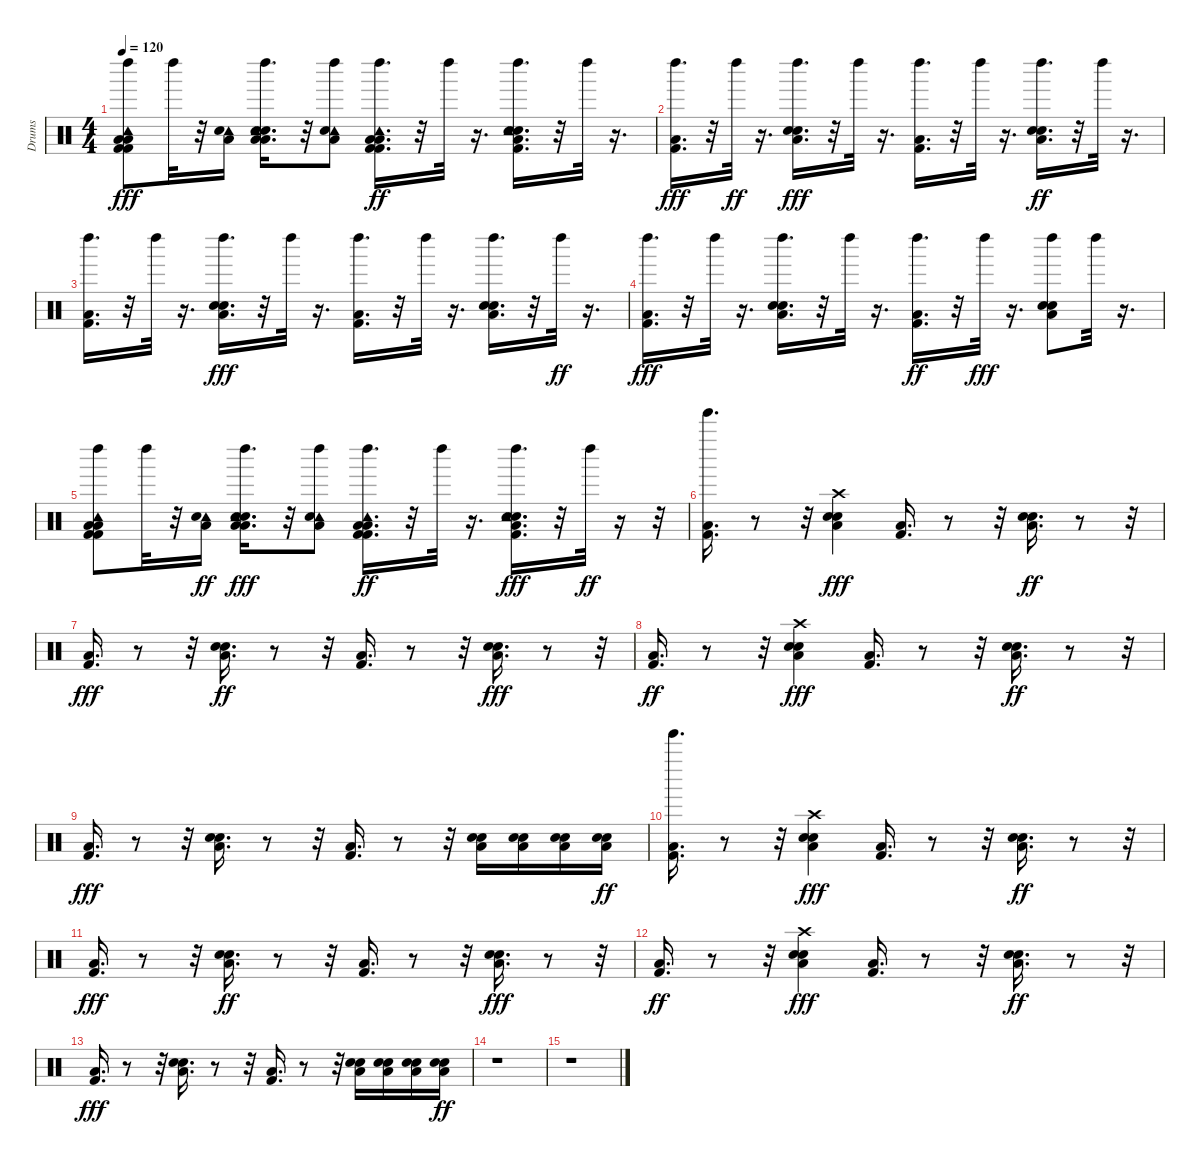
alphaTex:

\track ("Drums" "Drums") {instrument percussion}
\staff {score}
\articulation defaults
\ts (4 4)
\tempo 120
\clef neutral
\ks c
("Left Maraca (hit)" "Low Floor Tom (hit)" "Kick (hit) 2" "Tambourine (hit)" "Low Floor Tom (hit)" "Kick (hit) 2").8{dy fff} "Left Maraca (hit)".32 r.32 ("Tambourine (hit)" "Low Floor Tom (hit)" "Snare (hit) 2").16 ("Left Maraca (hit)" "Electric Snare (hit)" "Low Floor Tom (hit)" "Snare (hit) 2" "Tambourine (hit)" "Low Floor Tom (hit)").16{d} r.32 ("Left Maraca (hit)" "Tambourine (hit)" "Low Floor Tom (hit)" "Snare (hit) 2").8 ("Left Maraca (hit)" "Low Floor Tom (hit)" "Kick (hit) 2" "Tambourine (hit)" "Low Floor Tom (hit)" "Kick (hit) 2").16{d dy ff} r.32 "Left Maraca (hit)".32 r.16{d} ("Left Maraca (hit)" "Electric Snare (hit)" "Low Floor Tom (hit)" "Snare (hit) 2" "Tambourine (hit)" "Kick (hit) 2").16{d} r.32 "Left Maraca (hit)".32 r.16{d} |
("Left Maraca (hit)" "Low Floor Tom (hit)" "Kick (hit) 2").16{d dy fff} r.32 "Left Maraca (hit)".32{dy ff} r.16{d} ("Left Maraca (hit)" "Electric Snare (hit)" "Low Floor Tom (hit)" "Snare (hit) 2").16{d dy fff} r.32 "Left Maraca (hit)".32 r.16{d} ("Left Maraca (hit)" "Low Floor Tom (hit)" "Kick (hit) 2").16{d} r.32 "Left Maraca (hit)".32 r.16{d} ("Left Maraca (hit)" "Electric Snare (hit)" "Low Floor Tom (hit)" "Snare (hit) 2").16{d dy ff} r.32 "Left Maraca (hit)".32 r.16{d} |
("Left Maraca (hit)" "Low Floor Tom (hit)" "Kick (hit) 2").16{d} r.32 "Left Maraca (hit)".32 r.16{d} ("Left Maraca (hit)" "Electric Snare (hit)" "Low Floor Tom (hit)" "Snare (hit) 2").16{d dy fff} r.32 "Left Maraca (hit)".32 r.16{d} ("Left Maraca (hit)" "Low Floor Tom (hit)" "Kick (hit) 2").16{d} r.32 "Left Maraca (hit)".32 r.16{d} ("Left Maraca (hit)" "Electric Snare (hit)" "Low Floor Tom (hit)" "Snare (hit) 2").16{d} r.32 "Left Maraca (hit)".32{dy ff} r.16{d} |
("Left Maraca (hit)" "Low Floor Tom (hit)" "Kick (hit) 2").16{d dy fff} r.32 "Left Maraca (hit)".32 r.16{d} ("Left Maraca (hit)" "Electric Snare (hit)" "Low Floor Tom (hit)" "Snare (hit) 2").16{d} r.32 "Left Maraca (hit)".32 r.16{d} ("Left Maraca (hit)" "Low Floor Tom (hit)" "Kick (hit) 2").16{d dy ff} r.32 "Left Maraca (hit)".32{dy fff} r.16{d} ("Left Maraca (hit)" "Electric Snare (hit)" "Low Floor Tom (hit)" "Snare (hit) 2").8 "Left Maraca (hit)".32 r.16{d} |
("Left Maraca (hit)" "Low Floor Tom (hit)" "Kick (hit) 2" "Tambourine (hit)" "Low Floor Tom (hit)" "Kick (hit) 2").8 "Left Maraca (hit)".32 r.32 ("Tambourine (hit)" "Low Floor Tom (hit)" "Snare (hit) 2").16{dy ff} ("Left Maraca (hit)" "Electric Snare (hit)" "Low Floor Tom (hit)" "Snare (hit) 2" "Tambourine (hit)" "Low Floor Tom (hit)").16{d dy fff} r.32 ("Left Maraca (hit)" "Tambourine (hit)" "Low Floor Tom (hit)" "Snare (hit) 2").8 ("Left Maraca (hit)" "Low Floor Tom (hit)" "Kick (hit) 2" "Tambourine (hit)" "Low Floor Tom (hit)" "Kick (hit) 2").16{d dy ff} r.32 "Left Maraca (hit)".32 r.16{d} ("Left Maraca (hit)" "Electric Snare (hit)" "Low Floor Tom (hit)" "Snare (hit) 2" "Tambourine (hit)" "Kick (hit) 2").16{d dy fff} r.32 "Left Maraca (hit)".32{dy ff} r.16 r.32 |
("Tinkle Bell (hit)" "Low Floor Tom (hit)" "Kick (hit) 2").16{d volume 12} r.8 r.32 ("Crash high (hit)" "Electric Snare (hit)" "Low Floor Tom (hit)" "Snare (hit) 2").4{dy fff} ("Low Floor Tom (hit)" "Kick (hit) 2").16{d} r.8 r.32 ("Electric Snare (hit)" "Low Floor Tom (hit)" "Snare (hit) 2").16{d dy ff} r.8 r.32 |
("Low Floor Tom (hit)" "Kick (hit) 2").16{d dy fff volume 11} r.8 r.32 ("Electric Snare (hit)" "Low Floor Tom (hit)" "Snare (hit) 2").16{d dy ff} r.8 r.32 ("Low Floor Tom (hit)" "Kick (hit) 2").16{d} r.8 r.32 ("Electric Snare (hit)" "Low Floor Tom (hit)" "Snare (hit) 2").16{d dy fff} r.8 r.32 |
("Low Floor Tom (hit)" "Kick (hit) 2").16{d dy ff volume 9} r.8 r.32 ("Crash high (hit)" "Electric Snare (hit)" "Low Floor Tom (hit)" "Snare (hit) 2").4{dy fff} ("Low Floor Tom (hit)" "Kick (hit) 2").16{d} r.8 r.32 ("Electric Snare (hit)" "Low Floor Tom (hit)" "Snare (hit) 2").16{d dy ff} r.8 r.32 |
("Low Floor Tom (hit)" "Kick (hit) 2").16{d dy fff volume 8} r.8 r.32 ("Electric Snare (hit)" "Low Floor Tom (hit)" "Snare (hit) 2").16{d} r.8 r.32 ("Low Floor Tom (hit)" "Kick (hit) 2").16{d} r.8 r.32 ("Electric Snare (hit)" "Low Floor Tom (hit)" "Snare (hit) 2").16 ("Electric Snare (hit)" "Snare (hit) 2" "Low Floor Tom (hit)").16 ("Electric Snare (hit)" "Low Floor Tom (hit)" "Snare (hit) 2").16 ("Low Floor Tom (hit)" "Electric Snare (hit)" "Snare (hit) 2").16{dy ff} |
("Tinkle Bell (hit)" "Low Floor Tom (hit)" "Kick (hit) 2").16{d volume 7} r.8 r.32 ("Crash high (hit)" "Electric Snare (hit)" "Low Floor Tom (hit)" "Snare (hit) 2").4{dy fff} ("Low Floor Tom (hit)" "Kick (hit) 2").16{d} r.8 r.32 ("Electric Snare (hit)" "Low Floor Tom (hit)" "Snare (hit) 2").16{d dy ff} r.8 r.32 |
("Low Floor Tom (hit)" "Kick (hit) 2").16{d dy fff volume 6} r.8 r.32 ("Electric Snare (hit)" "Low Floor Tom (hit)" "Snare (hit) 2").16{d dy ff} r.8 r.32 ("Low Floor Tom (hit)" "Kick (hit) 2").16{d} r.8 r.32 ("Electric Snare (hit)" "Low Floor Tom (hit)" "Snare (hit) 2").16{d dy fff} r.8 r.32 |
("Low Floor Tom (hit)" "Kick (hit) 2").16{d dy ff volume 5} r.8 r.32 ("Crash high (hit)" "Electric Snare (hit)" "Low Floor Tom (hit)" "Snare (hit) 2").4{dy fff} ("Low Floor Tom (hit)" "Kick (hit) 2").16{d} r.8 r.32 ("Electric Snare (hit)" "Low Floor Tom (hit)" "Snare (hit) 2").16{d dy ff} r.8 r.32 |
("Low Floor Tom (hit)" "Kick (hit) 2").16{d dy fff volume 4} r.8 r.32 ("Electric Snare (hit)" "Low Floor Tom (hit)" "Snare (hit) 2").16{d} r.8 r.32 ("Low Floor Tom (hit)" "Kick (hit) 2").16{d} r.8 r.32 ("Electric Snare (hit)" "Low Floor Tom (hit)" "Snare (hit) 2").16 ("Electric Snare (hit)" "Snare (hit) 2" "Low Floor Tom (hit)").16 ("Electric Snare (hit)" "Low Floor Tom (hit)" "Snare (hit) 2").16 ("Low Floor Tom (hit)" "Electric Snare (hit)" "Snare (hit) 2").16{dy ff} |
r.1 |
r.1
